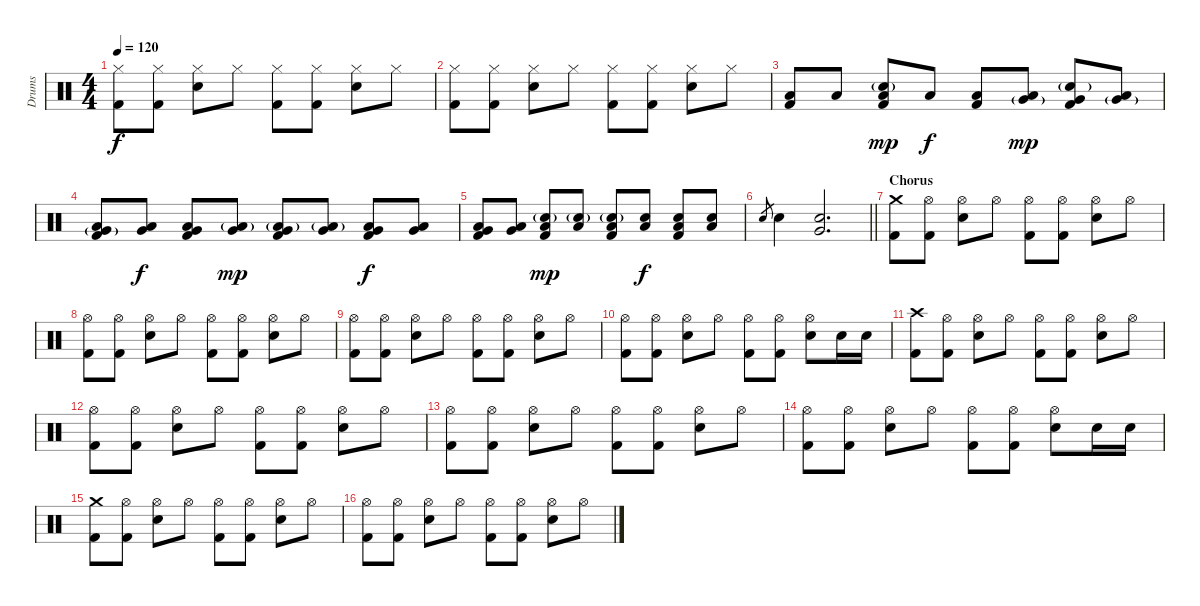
\track ("Drums" "Drums") {instrument percussion}
\staff {score}
\articulation defaults
\ts (4 4)
\tempo 120
\clef neutral
\ks c
("Hi-Hat (closed)" "Kick (hit) 2").8{dy f volume 9} ("Hi-Hat (closed)" "Kick (hit) 2").8 ("Hi-Hat (closed)" "Electric Snare (hit)").8{volume 7} "Hi-Hat (closed)".8 ("Hi-Hat (closed)" "Kick (hit) 2").8{volume 9} ("Hi-Hat (closed)" "Kick (hit) 2").8 ("Hi-Hat (closed)" "Electric Snare (hit)").8{volume 7} "Hi-Hat (closed)".8 |
("Hi-Hat (closed)" "Kick (hit) 2").8{volume 9} ("Hi-Hat (closed)" "Kick (hit) 2").8 ("Hi-Hat (closed)" "Electric Snare (hit)").8{volume 7} "Hi-Hat (closed)".8 ("Hi-Hat (closed)" "Kick (hit) 2").8{volume 9} ("Hi-Hat (closed)" "Kick (hit) 2").8 ("Hi-Hat (closed)" "Electric Snare (hit)").8{volume 7} "Hi-Hat (closed)".8 |
("Low Floor Tom (hit)" "Kick (hit) 2").8{volume 12} "Low Floor Tom (hit)".8 ("Electric Snare (hit)"{g} "Low Floor Tom (hit)" "Kick (hit) 2").8{dy mp} "Low Floor Tom (hit)".8{dy f} ("Low Floor Tom (hit)" "Kick (hit) 2").8 ("Very Low Tom (hit)"{g} "Low Floor Tom (hit)").8{dy mp} ("Electric Snare (hit)"{g} "Very Low Tom (hit)" "Kick (hit) 2").8 ("Very Low Tom (hit)"{g} "Low Floor Tom (hit)").8 |
("Very Low Tom (hit)"{g} "Low Floor Tom (hit)" "Kick (hit) 2").8 ("Very Low Tom (hit)" "Low Floor Tom (hit)").8{dy f} ("Very Low Tom (hit)" "Low Floor Tom (hit)" "Kick (hit) 2").8 ("Low Tom (hit)"{g} "Very Low Tom (hit)").8{dy mp} ("Low Tom (hit)"{g} "Very Low Tom (hit)" "Kick (hit) 2").8 ("Low Tom (hit)"{g} "Very Low Tom (hit)").8 ("Low Tom (hit)" "Very Low Tom (hit)" "Kick (hit) 2").8{dy f} ("Low Tom (hit)" "Very Low Tom (hit)").8 |
("Low Tom (hit)" "Very Low Tom (hit)" "Kick (hit) 2").8 ("Low Tom (hit)" "Very Low Tom (hit)").8 ("Low Tom (hit)" "Electric Snare (hit)"{g} "Kick (hit) 2").8{dy mp} ("Low Tom (hit)" "Electric Snare (hit)"{g}).8 ("Low Tom (hit)" "Electric Snare (hit)"{g} "Kick (hit) 2").8 ("Low Tom (hit)" "Electric Snare (hit)").8{dy f} ("Low Tom (hit)" "Electric Snare (hit)" "Kick (hit) 2").8 ("Low Tom (hit)" "Electric Snare (hit)").8 |
\barLineRight lightlight "Electric Snare (hit)".8{gr} "Electric Snare (hit)".4
("Electric Snare (hit)" "Very Low Tom (hit)").2{d} |
\section ("" "Chorus")
("Crash medium (hit)" "Kick (hit) 2").8 ("Hi-Hat (open)" "Kick (hit) 2").8 ("Hi-Hat (open)" "Electric Snare (hit)").8 "Hi-Hat (open)".8 ("Hi-Hat (open)" "Kick (hit) 2").8 ("Hi-Hat (open)" "Kick (hit) 2").8 ("Hi-Hat (open)" "Electric Snare (hit)").8 "Hi-Hat (open)".8 |
("Hi-Hat (open)" "Kick (hit) 2").8 ("Hi-Hat (open)" "Kick (hit) 2").8 ("Hi-Hat (open)" "Electric Snare (hit)").8 "Hi-Hat (open)".8 ("Hi-Hat (open)" "Kick (hit) 2").8 ("Hi-Hat (open)" "Kick (hit) 2").8 ("Hi-Hat (open)" "Electric Snare (hit)").8 "Hi-Hat (open)".8 |
("Hi-Hat (open)" "Kick (hit) 2").8 ("Hi-Hat (open)" "Kick (hit) 2").8 ("Hi-Hat (open)" "Electric Snare (hit)").8 "Hi-Hat (open)".8 ("Hi-Hat (open)" "Kick (hit) 2").8 ("Hi-Hat (open)" "Kick (hit) 2").8 ("Hi-Hat (open)" "Electric Snare (hit)").8 "Hi-Hat (open)".8 |
("Hi-Hat (open)" "Kick (hit) 2").8 ("Hi-Hat (open)" "Kick (hit) 2").8 ("Hi-Hat (open)" "Electric Snare (hit)").8 "Hi-Hat (open)".8 ("Hi-Hat (open)" "Kick (hit) 2").8 ("Hi-Hat (open)" "Kick (hit) 2").8 ("Hi-Hat (open)" "Electric Snare (hit)").8 "Electric Snare (hit)".16 "Electric Snare (hit)".16 |
("Crash high (hit)" "Kick (hit) 2").8 ("Hi-Hat (open)" "Kick (hit) 2").8 ("Hi-Hat (open)" "Electric Snare (hit)").8 "Hi-Hat (open)".8 ("Hi-Hat (open)" "Kick (hit) 2").8 ("Hi-Hat (open)" "Kick (hit) 2").8 ("Hi-Hat (open)" "Electric Snare (hit)").8 "Hi-Hat (open)".8 |
("Hi-Hat (open)" "Kick (hit) 2").8 ("Hi-Hat (open)" "Kick (hit) 2").8 ("Hi-Hat (open)" "Electric Snare (hit)").8 "Hi-Hat (open)".8 ("Hi-Hat (open)" "Kick (hit) 2").8 ("Hi-Hat (open)" "Kick (hit) 2").8 ("Hi-Hat (open)" "Electric Snare (hit)").8 "Hi-Hat (open)".8 |
("Hi-Hat (open)" "Kick (hit) 2").8 ("Hi-Hat (open)" "Kick (hit) 2").8 ("Hi-Hat (open)" "Electric Snare (hit)").8 "Hi-Hat (open)".8 ("Hi-Hat (open)" "Kick (hit) 2").8 ("Hi-Hat (open)" "Kick (hit) 2").8 ("Hi-Hat (open)" "Electric Snare (hit)").8 "Hi-Hat (open)".8 |
("Hi-Hat (open)" "Kick (hit) 2").8 ("Hi-Hat (open)" "Kick (hit) 2").8 ("Hi-Hat (open)" "Electric Snare (hit)").8 "Hi-Hat (open)".8 ("Hi-Hat (open)" "Kick (hit) 2").8 ("Hi-Hat (open)" "Kick (hit) 2").8 ("Hi-Hat (open)" "Electric Snare (hit)").8 "Electric Snare (hit)".16 "Electric Snare (hit)".16 |
("Crash medium (hit)" "Kick (hit) 2").8 ("Hi-Hat (open)" "Kick (hit) 2").8 ("Hi-Hat (open)" "Electric Snare (hit)").8 "Hi-Hat (open)".8 ("Hi-Hat (open)" "Kick (hit) 2").8 ("Hi-Hat (open)" "Kick (hit) 2").8 ("Hi-Hat (open)" "Electric Snare (hit)").8 "Hi-Hat (open)".8 |
("Hi-Hat (open)" "Kick (hit) 2").8 ("Hi-Hat (open)" "Kick (hit) 2").8 ("Hi-Hat (open)" "Electric Snare (hit)").8 "Hi-Hat (open)".8 ("Hi-Hat (open)" "Kick (hit) 2").8 ("Hi-Hat (open)" "Kick (hit) 2").8 ("Hi-Hat (open)" "Electric Snare (hit)").8 "Hi-Hat (open)".8
